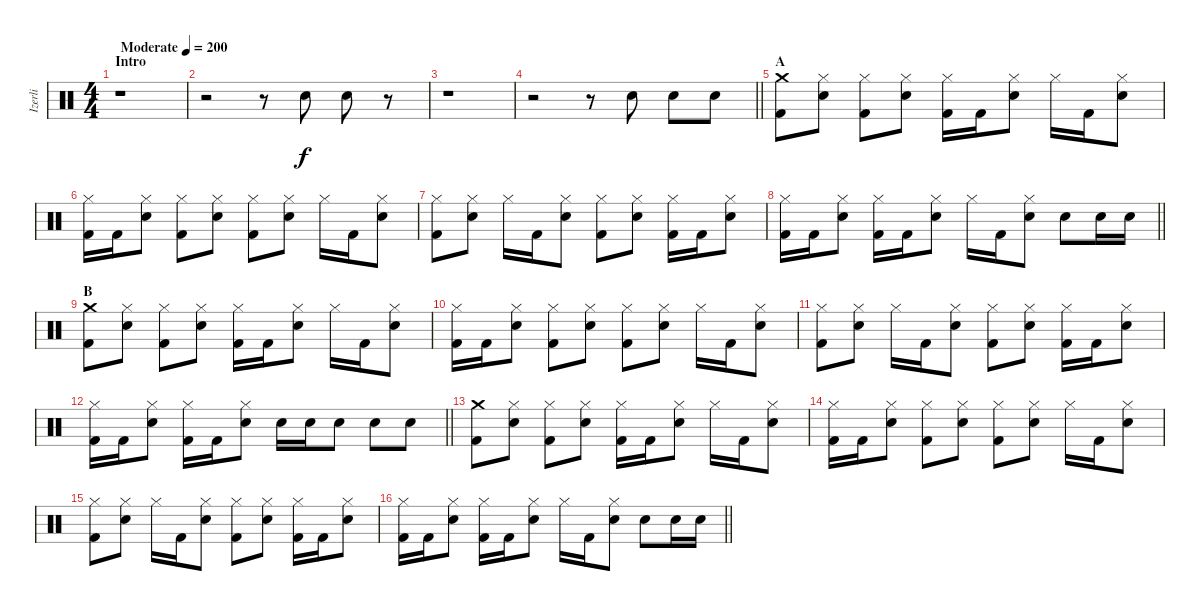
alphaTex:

\track ("Izerli" "Izerli") {instrument percussion}
\staff {score}
\articulation defaults
\ts (4 4)
\section ("" "Intro")
\tempo (200 "Moderate")
\clef neutral
\ks c
r.1{dy f} |
r.2 r.8 "Electric Snare (hit)".8 "Electric Snare (hit)".8 r.8 |
r.1 |
\barLineRight lightlight
r.2 r.8 "Electric Snare (hit)".8 "Electric Snare (hit)".8 "Electric Snare (hit)".8 |
\section ("" "A")
("Crash medium (hit)" "Kick (hit) 2").8 ("Hi-Hat (closed)" "Electric Snare (hit)").8 ("Hi-Hat (closed)" "Kick (hit) 2").8 ("Hi-Hat (closed)" "Electric Snare (hit)").8 ("Hi-Hat (closed)" "Kick (hit) 2").16 "Kick (hit) 2".16 ("Hi-Hat (closed)" "Electric Snare (hit)").8 "Hi-Hat (closed)".16 "Kick (hit) 2".16 ("Hi-Hat (closed)" "Electric Snare (hit)").8 |
("Hi-Hat (closed)" "Kick (hit) 2").16 "Kick (hit) 2".16 ("Hi-Hat (closed)" "Electric Snare (hit)").8 ("Hi-Hat (closed)" "Kick (hit) 2").8 ("Hi-Hat (closed)" "Electric Snare (hit)").8 ("Hi-Hat (closed)" "Kick (hit) 2").8 ("Hi-Hat (closed)" "Electric Snare (hit)").8 "Hi-Hat (closed)".16 "Kick (hit) 2".16 ("Hi-Hat (closed)" "Electric Snare (hit)").8 |
("Hi-Hat (closed)" "Kick (hit) 2").8 ("Hi-Hat (closed)" "Electric Snare (hit)").8 "Hi-Hat (closed)".16 "Kick (hit) 2".16 ("Hi-Hat (closed)" "Electric Snare (hit)").8 ("Hi-Hat (closed)" "Kick (hit) 2").8 ("Hi-Hat (closed)" "Electric Snare (hit)").8 ("Hi-Hat (closed)" "Kick (hit) 2").16 "Kick (hit) 2".16 ("Hi-Hat (closed)" "Electric Snare (hit)").8 |
\barLineRight lightlight
("Hi-Hat (closed)" "Kick (hit) 2").16 "Kick (hit) 2".16 ("Hi-Hat (closed)" "Electric Snare (hit)").8 ("Hi-Hat (closed)" "Kick (hit) 2").16 "Kick (hit) 2".16 ("Hi-Hat (closed)" "Electric Snare (hit)").8 "Hi-Hat (closed)".16 "Kick (hit) 2".16 ("Hi-Hat (closed)" "Electric Snare (hit)").8 "Electric Snare (hit)".8 "Electric Snare (hit)".16 "Electric Snare (hit)".16 |
\section ("" "B")
("Crash medium (hit)" "Kick (hit) 2").8 ("Hi-Hat (closed)" "Electric Snare (hit)").8 ("Hi-Hat (closed)" "Kick (hit) 2").8 ("Hi-Hat (closed)" "Electric Snare (hit)").8 ("Hi-Hat (closed)" "Kick (hit) 2").16 "Kick (hit) 2".16 ("Hi-Hat (closed)" "Electric Snare (hit)").8 "Hi-Hat (closed)".16 "Kick (hit) 2".16 ("Hi-Hat (closed)" "Electric Snare (hit)").8 |
("Hi-Hat (closed)" "Kick (hit) 2").16 "Kick (hit) 2".16 ("Hi-Hat (closed)" "Electric Snare (hit)").8 ("Hi-Hat (closed)" "Kick (hit) 2").8 ("Hi-Hat (closed)" "Electric Snare (hit)").8 ("Hi-Hat (closed)" "Kick (hit) 2").8 ("Hi-Hat (closed)" "Electric Snare (hit)").8 "Hi-Hat (closed)".16 "Kick (hit) 2".16 ("Hi-Hat (closed)" "Electric Snare (hit)").8 |
("Hi-Hat (closed)" "Kick (hit) 2").8 ("Hi-Hat (closed)" "Electric Snare (hit)").8 "Hi-Hat (closed)".16 "Kick (hit) 2".16 ("Hi-Hat (closed)" "Electric Snare (hit)").8 ("Hi-Hat (closed)" "Kick (hit) 2").8 ("Hi-Hat (closed)" "Electric Snare (hit)").8 ("Hi-Hat (closed)" "Kick (hit) 2").16 "Kick (hit) 2".16 ("Hi-Hat (closed)" "Electric Snare (hit)").8 |
\barLineRight lightlight
("Hi-Hat (closed)" "Kick (hit) 2").16 "Kick (hit) 2".16 ("Hi-Hat (closed)" "Electric Snare (hit)").8 ("Hi-Hat (closed)" "Kick (hit) 2").16 "Kick (hit) 2".16 ("Hi-Hat (closed)" "Electric Snare (hit)").8 "Electric Snare (hit)".16 "Electric Snare (hit)".16 "Electric Snare (hit)".8 "Electric Snare (hit)".8 "Electric Snare (hit)".8 |
("Crash medium (hit)" "Kick (hit) 2").8 ("Hi-Hat (closed)" "Electric Snare (hit)").8 ("Hi-Hat (closed)" "Kick (hit) 2").8 ("Hi-Hat (closed)" "Electric Snare (hit)").8 ("Hi-Hat (closed)" "Kick (hit) 2").16 "Kick (hit) 2".16 ("Hi-Hat (closed)" "Electric Snare (hit)").8 "Hi-Hat (closed)".16 "Kick (hit) 2".16 ("Hi-Hat (closed)" "Electric Snare (hit)").8 |
("Hi-Hat (closed)" "Kick (hit) 2").16 "Kick (hit) 2".16 ("Hi-Hat (closed)" "Electric Snare (hit)").8 ("Hi-Hat (closed)" "Kick (hit) 2").8 ("Hi-Hat (closed)" "Electric Snare (hit)").8 ("Hi-Hat (closed)" "Kick (hit) 2").8 ("Hi-Hat (closed)" "Electric Snare (hit)").8 "Hi-Hat (closed)".16 "Kick (hit) 2".16 ("Hi-Hat (closed)" "Electric Snare (hit)").8 |
("Hi-Hat (closed)" "Kick (hit) 2").8 ("Hi-Hat (closed)" "Electric Snare (hit)").8 "Hi-Hat (closed)".16 "Kick (hit) 2".16 ("Hi-Hat (closed)" "Electric Snare (hit)").8 ("Hi-Hat (closed)" "Kick (hit) 2").8 ("Hi-Hat (closed)" "Electric Snare (hit)").8 ("Hi-Hat (closed)" "Kick (hit) 2").16 "Kick (hit) 2".16 ("Hi-Hat (closed)" "Electric Snare (hit)").8 |
\barLineRight lightlight
("Hi-Hat (closed)" "Kick (hit) 2").16 "Kick (hit) 2".16 ("Hi-Hat (closed)" "Electric Snare (hit)").8 ("Hi-Hat (closed)" "Kick (hit) 2").16 "Kick (hit) 2".16 ("Hi-Hat (closed)" "Electric Snare (hit)").8 "Hi-Hat (closed)".16 "Kick (hit) 2".16 ("Hi-Hat (closed)" "Electric Snare (hit)").8 "Electric Snare (hit)".8 "Electric Snare (hit)".16 "Electric Snare (hit)".16
